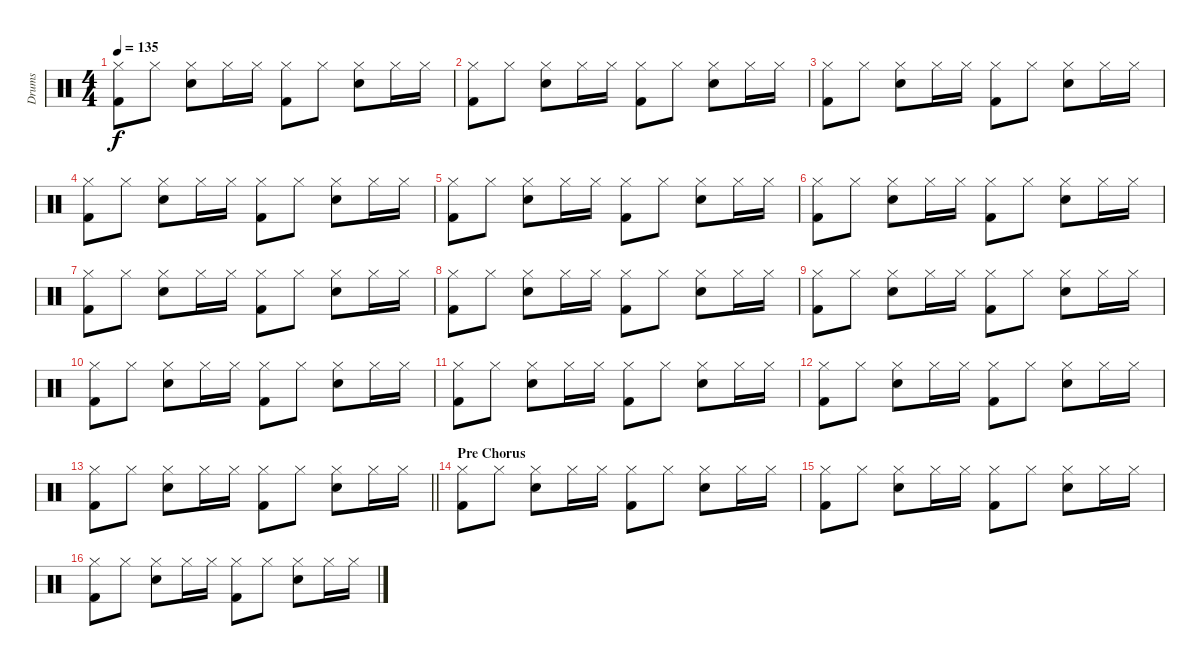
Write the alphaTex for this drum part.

\track ("Drums" "Drums") {instrument percussion}
\staff {score}
\articulation defaults
\ts (4 4)
\tempo 135
\clef neutral
\ks c
("Hi-Hat (closed)" "Kick (hit) 2").8{dy f} "Hi-Hat (closed)".8 ("Hi-Hat (closed)" "Snare (hit) 2").8 "Hi-Hat (closed)".16 "Hi-Hat (closed)".16 ("Hi-Hat (closed)" "Kick (hit) 2").8 "Hi-Hat (closed)".8 ("Hi-Hat (closed)" "Snare (hit) 2").8 "Hi-Hat (closed)".16 "Hi-Hat (closed)".16 |
("Hi-Hat (closed)" "Kick (hit) 2").8 "Hi-Hat (closed)".8 ("Hi-Hat (closed)" "Snare (hit) 2").8 "Hi-Hat (closed)".16 "Hi-Hat (closed)".16 ("Hi-Hat (closed)" "Kick (hit) 2").8 "Hi-Hat (closed)".8 ("Hi-Hat (closed)" "Snare (hit) 2").8 "Hi-Hat (closed)".16 "Hi-Hat (closed)".16 |
("Hi-Hat (closed)" "Kick (hit) 2").8 "Hi-Hat (closed)".8 ("Hi-Hat (closed)" "Snare (hit) 2").8 "Hi-Hat (closed)".16 "Hi-Hat (closed)".16 ("Hi-Hat (closed)" "Kick (hit) 2").8 "Hi-Hat (closed)".8 ("Hi-Hat (closed)" "Snare (hit) 2").8 "Hi-Hat (closed)".16 "Hi-Hat (closed)".16 |
("Hi-Hat (closed)" "Kick (hit) 2").8 "Hi-Hat (closed)".8 ("Hi-Hat (closed)" "Snare (hit) 2").8 "Hi-Hat (closed)".16 "Hi-Hat (closed)".16 ("Hi-Hat (closed)" "Kick (hit) 2").8 "Hi-Hat (closed)".8 ("Hi-Hat (closed)" "Snare (hit) 2").8 "Hi-Hat (closed)".16 "Hi-Hat (closed)".16 |
("Hi-Hat (closed)" "Kick (hit) 2").8 "Hi-Hat (closed)".8 ("Hi-Hat (closed)" "Snare (hit) 2").8 "Hi-Hat (closed)".16 "Hi-Hat (closed)".16 ("Hi-Hat (closed)" "Kick (hit) 2").8 "Hi-Hat (closed)".8 ("Hi-Hat (closed)" "Snare (hit) 2").8 "Hi-Hat (closed)".16 "Hi-Hat (closed)".16 |
("Hi-Hat (closed)" "Kick (hit) 2").8 "Hi-Hat (closed)".8 ("Hi-Hat (closed)" "Snare (hit) 2").8 "Hi-Hat (closed)".16 "Hi-Hat (closed)".16 ("Hi-Hat (closed)" "Kick (hit) 2").8 "Hi-Hat (closed)".8 ("Hi-Hat (closed)" "Snare (hit) 2").8 "Hi-Hat (closed)".16 "Hi-Hat (closed)".16 |
("Hi-Hat (closed)" "Kick (hit) 2").8 "Hi-Hat (closed)".8 ("Hi-Hat (closed)" "Snare (hit) 2").8 "Hi-Hat (closed)".16 "Hi-Hat (closed)".16 ("Hi-Hat (closed)" "Kick (hit) 2").8 "Hi-Hat (closed)".8 ("Hi-Hat (closed)" "Snare (hit) 2").8 "Hi-Hat (closed)".16 "Hi-Hat (closed)".16 |
("Hi-Hat (closed)" "Kick (hit) 2").8 "Hi-Hat (closed)".8 ("Hi-Hat (closed)" "Snare (hit) 2").8 "Hi-Hat (closed)".16 "Hi-Hat (closed)".16 ("Hi-Hat (closed)" "Kick (hit) 2").8 "Hi-Hat (closed)".8 ("Hi-Hat (closed)" "Snare (hit) 2").8 "Hi-Hat (closed)".16 "Hi-Hat (closed)".16 |
("Hi-Hat (closed)" "Kick (hit) 2").8 "Hi-Hat (closed)".8 ("Hi-Hat (closed)" "Snare (hit) 2").8 "Hi-Hat (closed)".16 "Hi-Hat (closed)".16 ("Hi-Hat (closed)" "Kick (hit) 2").8 "Hi-Hat (closed)".8 ("Hi-Hat (closed)" "Snare (hit) 2").8 "Hi-Hat (closed)".16 "Hi-Hat (closed)".16 |
("Hi-Hat (closed)" "Kick (hit) 2").8 "Hi-Hat (closed)".8 ("Hi-Hat (closed)" "Snare (hit) 2").8 "Hi-Hat (closed)".16 "Hi-Hat (closed)".16 ("Hi-Hat (closed)" "Kick (hit) 2").8 "Hi-Hat (closed)".8 ("Hi-Hat (closed)" "Snare (hit) 2").8 "Hi-Hat (closed)".16 "Hi-Hat (closed)".16 |
("Hi-Hat (closed)" "Kick (hit) 2").8 "Hi-Hat (closed)".8 ("Hi-Hat (closed)" "Snare (hit) 2").8 "Hi-Hat (closed)".16 "Hi-Hat (closed)".16 ("Hi-Hat (closed)" "Kick (hit) 2").8 "Hi-Hat (closed)".8 ("Hi-Hat (closed)" "Snare (hit) 2").8 "Hi-Hat (closed)".16 "Hi-Hat (closed)".16 |
("Hi-Hat (closed)" "Kick (hit) 2").8 "Hi-Hat (closed)".8 ("Hi-Hat (closed)" "Snare (hit) 2").8 "Hi-Hat (closed)".16 "Hi-Hat (closed)".16 ("Hi-Hat (closed)" "Kick (hit) 2").8 "Hi-Hat (closed)".8 ("Hi-Hat (closed)" "Snare (hit) 2").8 "Hi-Hat (closed)".16 "Hi-Hat (closed)".16 |
\barLineRight lightlight
("Hi-Hat (closed)" "Kick (hit) 2").8 "Hi-Hat (closed)".8 ("Hi-Hat (closed)" "Snare (hit) 2").8 "Hi-Hat (closed)".16 "Hi-Hat (closed)".16 ("Hi-Hat (closed)" "Kick (hit) 2").8 "Hi-Hat (closed)".8 ("Hi-Hat (closed)" "Snare (hit) 2").8 "Hi-Hat (closed)".16 "Hi-Hat (closed)".16 |
\section ("" "Pre Chorus")
("Hi-Hat (closed)" "Kick (hit) 2").8 "Hi-Hat (closed)".8 ("Hi-Hat (closed)" "Snare (hit) 2").8 "Hi-Hat (closed)".16 "Hi-Hat (closed)".16 ("Hi-Hat (closed)" "Kick (hit) 2").8 "Hi-Hat (closed)".8 ("Hi-Hat (closed)" "Snare (hit) 2").8 "Hi-Hat (closed)".16 "Hi-Hat (closed)".16 |
("Hi-Hat (closed)" "Kick (hit) 2").8 "Hi-Hat (closed)".8 ("Hi-Hat (closed)" "Snare (hit) 2").8 "Hi-Hat (closed)".16 "Hi-Hat (closed)".16 ("Hi-Hat (closed)" "Kick (hit) 2").8 "Hi-Hat (closed)".8 ("Hi-Hat (closed)" "Snare (hit) 2").8 "Hi-Hat (closed)".16 "Hi-Hat (closed)".16 |
("Hi-Hat (closed)" "Kick (hit) 2").8 "Hi-Hat (closed)".8 ("Hi-Hat (closed)" "Snare (hit) 2").8 "Hi-Hat (closed)".16 "Hi-Hat (closed)".16 ("Hi-Hat (closed)" "Kick (hit) 2").8 "Hi-Hat (closed)".8 ("Hi-Hat (closed)" "Snare (hit) 2").8 "Hi-Hat (closed)".16 "Hi-Hat (closed)".16
